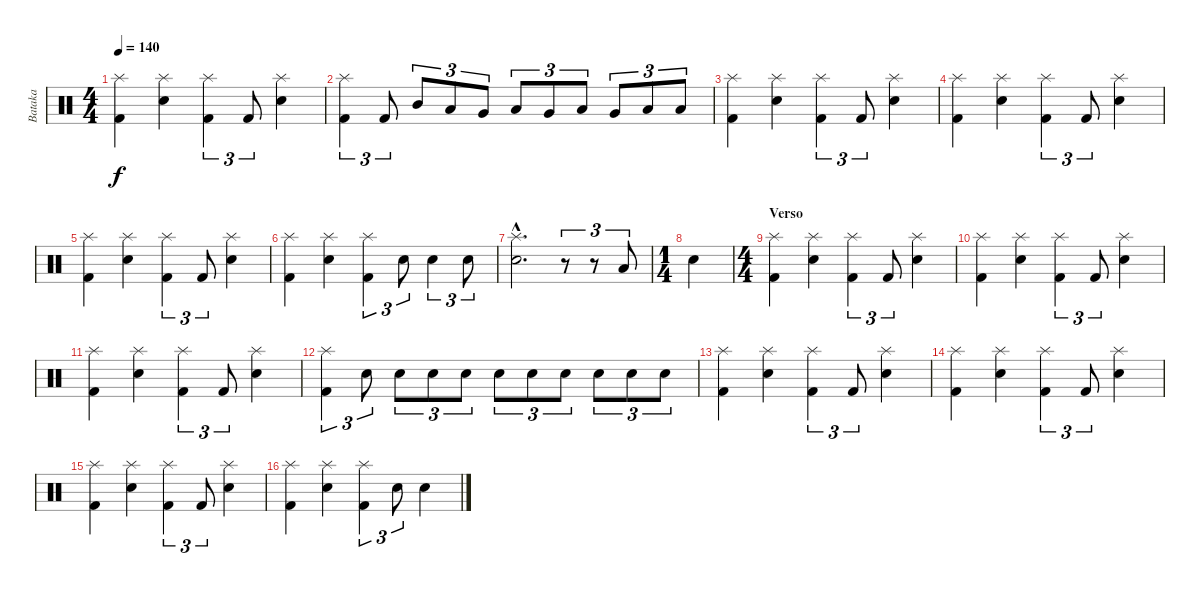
\track ("Bataka" "Bataka") {instrument percussion}
\staff {score}
\articulation defaults
\ts (4 4)
\tempo 140
\clef neutral
\ks c
("Splash (hit)" "Kick (hit) 2").4{dy f} ("Splash (hit)" "Electric Snare (hit)").4 ("Splash (hit)" "Kick (hit) 2").4{tu (3 2)} "Kick (hit) 2".8{tu (3 2)} ("Splash (hit)" "Electric Snare (hit)").4 |
("Splash (hit)" "Kick (hit) 2").4{tu (3 2)} "Kick (hit) 2".8{tu (3 2)} "Mid Tom (hit)".8{tu (3 2)} "Low Tom (hit)".8{tu (3 2)} "Very Low Tom (hit)".8{tu (3 2)} "Low Tom (hit)".8{tu (3 2)} "Very Low Tom (hit)".8{tu (3 2)} "Low Floor Tom (hit)".8{tu (3 2)} "Very Low Tom (hit)".8{tu (3 2)} "Low Floor Tom (hit)".8{tu (3 2)} "Low Floor Tom (hit)".8{tu (3 2)} |
("Splash (hit)" "Kick (hit) 2").4 ("Splash (hit)" "Electric Snare (hit)").4 ("Splash (hit)" "Kick (hit) 2").4{tu (3 2)} "Kick (hit) 2".8{tu (3 2)} ("Splash (hit)" "Electric Snare (hit)").4 |
("Splash (hit)" "Kick (hit) 2").4 ("Splash (hit)" "Electric Snare (hit)").4 ("Splash (hit)" "Kick (hit) 2").4{tu (3 2)} "Kick (hit) 2".8{tu (3 2)} ("Splash (hit)" "Electric Snare (hit)").4 |
("Splash (hit)" "Kick (hit) 2").4 ("Splash (hit)" "Electric Snare (hit)").4 ("Splash (hit)" "Kick (hit) 2").4{tu (3 2)} "Kick (hit) 2".8{tu (3 2)} ("Splash (hit)" "Electric Snare (hit)").4 |
("Splash (hit)" "Kick (hit) 2").4 ("Splash (hit)" "Electric Snare (hit)").4 ("Splash (hit)" "Kick (hit) 2").4{tu (3 2)} "Electric Snare (hit)".8{tu (3 2)} "Electric Snare (hit)".4{tu (3 2)} "Electric Snare (hit)".8{tu (3 2)} |
("Splash (hit)"{hac} "Electric Snare (hit)"{hac}).2{d} r.8{tu (3 2)} r.8{tu (3 2)} "Low Tom (hit)".8{tu (3 2)} |
\ts (1 4)
"Electric Snare (hit)".4 |
\ts (4 4)
\section ("" "Verso")
("Splash (hit)" "Kick (hit) 2").4 ("Splash (hit)" "Electric Snare (hit)").4 ("Splash (hit)" "Kick (hit) 2").4{tu (3 2)} "Kick (hit) 2".8{tu (3 2)} ("Splash (hit)" "Electric Snare (hit)").4 |
("Splash (hit)" "Kick (hit) 2").4 ("Splash (hit)" "Electric Snare (hit)").4 ("Splash (hit)" "Kick (hit) 2").4{tu (3 2)} "Kick (hit) 2".8{tu (3 2)} ("Splash (hit)" "Electric Snare (hit)").4 |
("Splash (hit)" "Kick (hit) 2").4 ("Splash (hit)" "Electric Snare (hit)").4 ("Splash (hit)" "Kick (hit) 2").4{tu (3 2)} "Kick (hit) 2".8{tu (3 2)} ("Splash (hit)" "Electric Snare (hit)").4 |
("Splash (hit)" "Kick (hit) 2").4{tu (3 2)} "Electric Snare (hit)".8{tu (3 2)} "Electric Snare (hit)".8{tu (3 2)} "Electric Snare (hit)".8{tu (3 2)} "Electric Snare (hit)".8{tu (3 2)} "Electric Snare (hit)".8{tu (3 2)} "Electric Snare (hit)".8{tu (3 2)} "Electric Snare (hit)".8{tu (3 2)} "Electric Snare (hit)".8{tu (3 2)} "Electric Snare (hit)".8{tu (3 2)} "Electric Snare (hit)".8{tu (3 2)} |
("Splash (hit)" "Kick (hit) 2").4 ("Splash (hit)" "Electric Snare (hit)").4 ("Splash (hit)" "Kick (hit) 2").4{tu (3 2)} "Kick (hit) 2".8{tu (3 2)} ("Splash (hit)" "Electric Snare (hit)").4 |
("Splash (hit)" "Kick (hit) 2").4 ("Splash (hit)" "Electric Snare (hit)").4 ("Splash (hit)" "Kick (hit) 2").4{tu (3 2)} "Kick (hit) 2".8{tu (3 2)} ("Splash (hit)" "Electric Snare (hit)").4 |
("Splash (hit)" "Kick (hit) 2").4 ("Splash (hit)" "Electric Snare (hit)").4 ("Splash (hit)" "Kick (hit) 2").4{tu (3 2)} "Kick (hit) 2".8{tu (3 2)} ("Splash (hit)" "Electric Snare (hit)").4 |
("Splash (hit)" "Kick (hit) 2").4 ("Splash (hit)" "Electric Snare (hit)").4 ("Splash (hit)" "Kick (hit) 2").4{tu (3 2)} "Electric Snare (hit)".8{tu (3 2)} "Electric Snare (hit)".4
